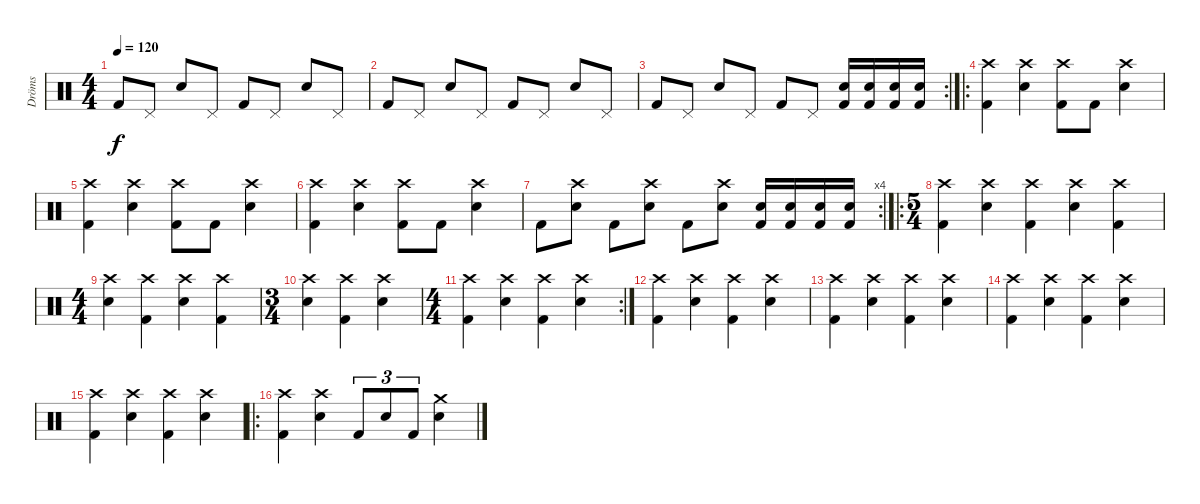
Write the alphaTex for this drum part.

\track ("Dröms" "Dröms") {instrument percussion}
\staff {score}
\articulation defaults
\ts (4 4)
\tempo 120
\clef neutral
\ks c "Kick (hit) 2".8{dy f} "Pedal Hi-Hat (hit)".8 "Snare (hit) 2".8 "Pedal Hi-Hat (hit)".8 "Kick (hit) 2".8 "Pedal Hi-Hat (hit)".8 "Snare (hit) 2".8 "Pedal Hi-Hat (hit)".8
|
"Kick (hit) 2".8 "Pedal Hi-Hat (hit)".8 "Snare (hit) 2".8 "Pedal Hi-Hat (hit)".8 "Kick (hit) 2".8 "Pedal Hi-Hat (hit)".8 "Snare (hit) 2".8 "Pedal Hi-Hat (hit)".8 |
\rc 2 "Kick (hit) 2".8 "Pedal Hi-Hat (hit)".8 "Snare (hit) 2".8 "Pedal Hi-Hat (hit)".8 "Kick (hit) 2".8 "Pedal Hi-Hat (hit)".8
("Snare (hit) 2" "Kick (hit) 2").16 ("Snare (hit) 2" "Kick (hit) 2").16 ("Snare (hit) 2" "Kick (hit) 2").16 ("Snare (hit) 2" "Kick (hit) 2").16 |
\ro
("Crash high (hit)" "Kick (hit) 2").4 ("Crash high (hit)" "Snare (hit) 2").4 ("Crash high (hit)" "Kick (hit) 2").8 "Kick (hit) 2".8 ("Crash high (hit)" "Snare (hit) 2").4 |
("Crash high (hit)" "Kick (hit) 2").4 ("Crash high (hit)" "Snare (hit) 2").4 ("Crash high (hit)" "Kick (hit) 2").8 "Kick (hit) 2".8 ("Crash high (hit)" "Snare (hit) 2").4 |
("Crash high (hit)" "Kick (hit) 2").4 ("Crash high (hit)" "Snare (hit) 2").4 ("Crash high (hit)" "Kick (hit) 2").8 "Kick (hit) 2".8 ("Crash high (hit)" "Snare (hit) 2").4 |
\rc 4 "Kick (hit) 2".8
("Crash high (hit)" "Snare (hit) 2").8 "Kick (hit) 2".8 ("Crash high (hit)" "Snare (hit) 2").8 "Kick (hit) 2".8 ("Crash high (hit)" "Snare (hit) 2").8 ("Snare (hit) 2" "Kick (hit) 2").16 ("Snare (hit) 2" "Kick (hit) 2").16 ("Snare (hit) 2" "Kick (hit) 2").16 ("Snare (hit) 2" "Kick (hit) 2").16 |
\ro
\ts (5 4)
("Crash high (hit)" "Kick (hit) 2").4 ("Crash high (hit)" "Snare (hit) 2").4 ("Crash high (hit)" "Kick (hit) 2").4 ("Crash high (hit)" "Snare (hit) 2").4 ("Crash high (hit)" "Kick (hit) 2").4 |
\ts (4 4)
("Crash high (hit)" "Snare (hit) 2").4 ("Crash high (hit)" "Kick (hit) 2").4 ("Crash high (hit)" "Snare (hit) 2").4 ("Crash high (hit)" "Kick (hit) 2").4 |
\ts (3 4)
("Crash high (hit)" "Snare (hit) 2").4 ("Crash high (hit)" "Kick (hit) 2").4 ("Crash high (hit)" "Snare (hit) 2").4 |
\rc 2
\ts (4 4)
("Crash high (hit)" "Kick (hit) 2").4 ("Crash high (hit)" "Snare (hit) 2").4 ("Crash high (hit)" "Kick (hit) 2").4 ("Crash high (hit)" "Snare (hit) 2").4 |
("Crash high (hit)" "Kick (hit) 2").4 ("Crash high (hit)" "Snare (hit) 2").4 ("Crash high (hit)" "Kick (hit) 2").4 ("Crash high (hit)" "Snare (hit) 2").4 |
("Crash high (hit)" "Kick (hit) 2").4 ("Crash high (hit)" "Snare (hit) 2").4 ("Crash high (hit)" "Kick (hit) 2").4 ("Crash high (hit)" "Snare (hit) 2").4 |
("Crash high (hit)" "Kick (hit) 2").4 ("Crash high (hit)" "Snare (hit) 2").4 ("Crash high (hit)" "Kick (hit) 2").4 ("Crash high (hit)" "Snare (hit) 2").4 |
("Crash high (hit)" "Kick (hit) 2").4 ("Crash high (hit)" "Snare (hit) 2").4 ("Crash high (hit)" "Kick (hit) 2").4 ("Crash high (hit)" "Snare (hit) 2").4 |
\ro
("Crash high (hit)" "Kick (hit) 2").4 ("Crash high (hit)" "Snare (hit) 2").4 "Kick (hit) 2".8{tu (3 2)} "Snare (hit) 2".8{tu (3 2)} "Kick (hit) 2".8{tu (3 2)} ("Crash medium (hit)" "Snare (hit) 2").4
